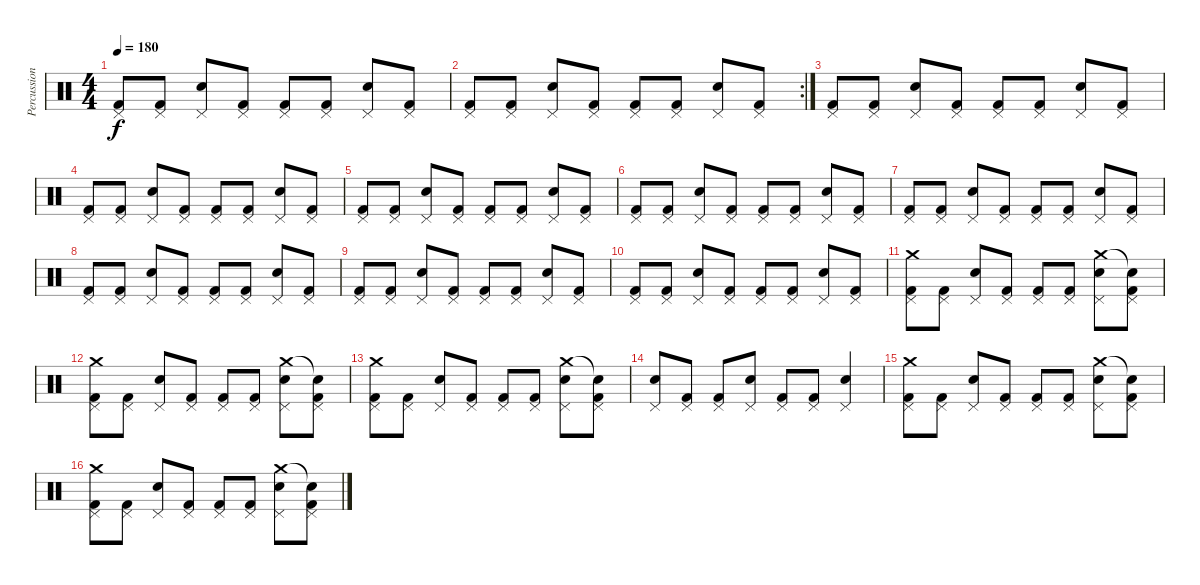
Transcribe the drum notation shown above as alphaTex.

\track ("Percussion" "Percussion") {instrument percussion}
\staff {score}
\articulation defaults
\ts (4 4)
\tempo 180
\clef neutral
\ks c
("Pedal Hi-Hat (hit)" "Kick (hit) 2").8{dy f} ("Pedal Hi-Hat (hit)" "Kick (hit) 2").8 ("Pedal Hi-Hat (hit)" "Snare (hit) 2").8 ("Pedal Hi-Hat (hit)" "Kick (hit) 2").8 ("Pedal Hi-Hat (hit)" "Kick (hit) 2").8 ("Pedal Hi-Hat (hit)" "Kick (hit) 2").8 ("Pedal Hi-Hat (hit)" "Snare (hit) 2").8 ("Pedal Hi-Hat (hit)" "Kick (hit) 2").8 |
\rc 2
("Pedal Hi-Hat (hit)" "Kick (hit) 2").8 ("Pedal Hi-Hat (hit)" "Kick (hit) 2").8 ("Pedal Hi-Hat (hit)" "Snare (hit) 2").8 ("Pedal Hi-Hat (hit)" "Kick (hit) 2").8 ("Pedal Hi-Hat (hit)" "Kick (hit) 2").8 ("Pedal Hi-Hat (hit)" "Kick (hit) 2").8 ("Pedal Hi-Hat (hit)" "Snare (hit) 2").8 ("Pedal Hi-Hat (hit)" "Kick (hit) 2").8 |
("Pedal Hi-Hat (hit)" "Kick (hit) 2").8 ("Pedal Hi-Hat (hit)" "Kick (hit) 2").8 ("Pedal Hi-Hat (hit)" "Snare (hit) 2").8 ("Pedal Hi-Hat (hit)" "Kick (hit) 2").8 ("Pedal Hi-Hat (hit)" "Kick (hit) 2").8 ("Pedal Hi-Hat (hit)" "Kick (hit) 2").8 ("Pedal Hi-Hat (hit)" "Snare (hit) 2").8 ("Pedal Hi-Hat (hit)" "Kick (hit) 2").8 |
("Pedal Hi-Hat (hit)" "Kick (hit) 2").8 ("Pedal Hi-Hat (hit)" "Kick (hit) 2").8 ("Pedal Hi-Hat (hit)" "Snare (hit) 2").8 ("Pedal Hi-Hat (hit)" "Kick (hit) 2").8 ("Pedal Hi-Hat (hit)" "Kick (hit) 2").8 ("Pedal Hi-Hat (hit)" "Kick (hit) 2").8 ("Pedal Hi-Hat (hit)" "Snare (hit) 2").8 ("Pedal Hi-Hat (hit)" "Kick (hit) 2").8 |
("Pedal Hi-Hat (hit)" "Kick (hit) 2").8 ("Pedal Hi-Hat (hit)" "Kick (hit) 2").8 ("Pedal Hi-Hat (hit)" "Snare (hit) 2").8 ("Pedal Hi-Hat (hit)" "Kick (hit) 2").8 ("Pedal Hi-Hat (hit)" "Kick (hit) 2").8 ("Pedal Hi-Hat (hit)" "Kick (hit) 2").8 ("Pedal Hi-Hat (hit)" "Snare (hit) 2").8 ("Pedal Hi-Hat (hit)" "Kick (hit) 2").8 |
("Pedal Hi-Hat (hit)" "Kick (hit) 2").8 ("Pedal Hi-Hat (hit)" "Kick (hit) 2").8 ("Pedal Hi-Hat (hit)" "Snare (hit) 2").8 ("Pedal Hi-Hat (hit)" "Kick (hit) 2").8 ("Pedal Hi-Hat (hit)" "Kick (hit) 2").8 ("Pedal Hi-Hat (hit)" "Kick (hit) 2").8 ("Pedal Hi-Hat (hit)" "Snare (hit) 2").8 ("Pedal Hi-Hat (hit)" "Kick (hit) 2").8 |
("Pedal Hi-Hat (hit)" "Kick (hit) 2").8 ("Pedal Hi-Hat (hit)" "Kick (hit) 2").8 ("Pedal Hi-Hat (hit)" "Snare (hit) 2").8 ("Pedal Hi-Hat (hit)" "Kick (hit) 2").8 ("Pedal Hi-Hat (hit)" "Kick (hit) 2").8 ("Pedal Hi-Hat (hit)" "Kick (hit) 2").8 ("Pedal Hi-Hat (hit)" "Snare (hit) 2").8 ("Pedal Hi-Hat (hit)" "Kick (hit) 2").8 |
("Pedal Hi-Hat (hit)" "Kick (hit) 2").8 ("Pedal Hi-Hat (hit)" "Kick (hit) 2").8 ("Pedal Hi-Hat (hit)" "Snare (hit) 2").8 ("Pedal Hi-Hat (hit)" "Kick (hit) 2").8 ("Pedal Hi-Hat (hit)" "Kick (hit) 2").8 ("Pedal Hi-Hat (hit)" "Kick (hit) 2").8 ("Pedal Hi-Hat (hit)" "Snare (hit) 2").8 ("Pedal Hi-Hat (hit)" "Kick (hit) 2").8 |
("Pedal Hi-Hat (hit)" "Kick (hit) 2").8 ("Pedal Hi-Hat (hit)" "Kick (hit) 2").8 ("Pedal Hi-Hat (hit)" "Snare (hit) 2").8 ("Pedal Hi-Hat (hit)" "Kick (hit) 2").8 ("Pedal Hi-Hat (hit)" "Kick (hit) 2").8 ("Pedal Hi-Hat (hit)" "Kick (hit) 2").8 ("Pedal Hi-Hat (hit)" "Snare (hit) 2").8 ("Pedal Hi-Hat (hit)" "Kick (hit) 2").8 |
("Pedal Hi-Hat (hit)" "Kick (hit) 2").8 ("Pedal Hi-Hat (hit)" "Kick (hit) 2").8 ("Pedal Hi-Hat (hit)" "Snare (hit) 2").8 ("Pedal Hi-Hat (hit)" "Kick (hit) 2").8 ("Pedal Hi-Hat (hit)" "Kick (hit) 2").8 ("Pedal Hi-Hat (hit)" "Kick (hit) 2").8 ("Pedal Hi-Hat (hit)" "Snare (hit) 2").8 ("Pedal Hi-Hat (hit)" "Kick (hit) 2").8 |
("Pedal Hi-Hat (hit)" "Crash medium (hit)" "Kick (hit) 2").8 ("Pedal Hi-Hat (hit)" "Kick (hit) 2").8 ("Pedal Hi-Hat (hit)" "Snare (hit) 2").8 ("Pedal Hi-Hat (hit)" "Kick (hit) 2").8 ("Pedal Hi-Hat (hit)" "Kick (hit) 2").8 ("Pedal Hi-Hat (hit)" "Kick (hit) 2").8 ("Pedal Hi-Hat (hit)" "Crash medium (hit)" "Snare (hit) 2").8 ("Pedal Hi-Hat (hit)" "Snare (hit)"{t} "Kick (hit) 2").8 |
("Pedal Hi-Hat (hit)" "Crash medium (hit)" "Kick (hit) 2").8 ("Pedal Hi-Hat (hit)" "Kick (hit) 2").8 ("Pedal Hi-Hat (hit)" "Snare (hit) 2").8 ("Pedal Hi-Hat (hit)" "Kick (hit) 2").8 ("Pedal Hi-Hat (hit)" "Kick (hit) 2").8 ("Pedal Hi-Hat (hit)" "Kick (hit) 2").8 ("Pedal Hi-Hat (hit)" "Crash medium (hit)" "Snare (hit) 2").8 ("Pedal Hi-Hat (hit)" "Snare (hit)"{t} "Kick (hit) 2").8 |
("Pedal Hi-Hat (hit)" "Crash medium (hit)" "Kick (hit) 2").8 ("Pedal Hi-Hat (hit)" "Kick (hit) 2").8 ("Pedal Hi-Hat (hit)" "Snare (hit) 2").8 ("Pedal Hi-Hat (hit)" "Kick (hit) 2").8 ("Pedal Hi-Hat (hit)" "Kick (hit) 2").8 ("Pedal Hi-Hat (hit)" "Kick (hit) 2").8 ("Pedal Hi-Hat (hit)" "Crash medium (hit)" "Snare (hit) 2").8 ("Pedal Hi-Hat (hit)" "Snare (hit)"{t} "Kick (hit) 2").8 |
("Pedal Hi-Hat (hit)" "Snare (hit) 2").8 ("Pedal Hi-Hat (hit)" "Kick (hit) 2").8 ("Pedal Hi-Hat (hit)" "Kick (hit) 2").8 ("Pedal Hi-Hat (hit)" "Snare (hit) 2").8 ("Pedal Hi-Hat (hit)" "Kick (hit) 2").8 ("Pedal Hi-Hat (hit)" "Kick (hit) 2").8 ("Pedal Hi-Hat (hit)" "Snare (hit) 2").4 |
("Pedal Hi-Hat (hit)" "Crash medium (hit)" "Kick (hit) 2").8 ("Pedal Hi-Hat (hit)" "Kick (hit) 2").8 ("Pedal Hi-Hat (hit)" "Snare (hit) 2").8 ("Pedal Hi-Hat (hit)" "Kick (hit) 2").8 ("Pedal Hi-Hat (hit)" "Kick (hit) 2").8 ("Pedal Hi-Hat (hit)" "Kick (hit) 2").8 ("Pedal Hi-Hat (hit)" "Crash medium (hit)" "Snare (hit) 2").8 ("Pedal Hi-Hat (hit)" "Snare (hit)"{t} "Kick (hit) 2").8 |
("Pedal Hi-Hat (hit)" "Crash medium (hit)" "Kick (hit) 2").8 ("Pedal Hi-Hat (hit)" "Kick (hit) 2").8 ("Pedal Hi-Hat (hit)" "Snare (hit) 2").8 ("Pedal Hi-Hat (hit)" "Kick (hit) 2").8 ("Pedal Hi-Hat (hit)" "Kick (hit) 2").8 ("Pedal Hi-Hat (hit)" "Kick (hit) 2").8 ("Pedal Hi-Hat (hit)" "Crash medium (hit)" "Snare (hit) 2").8 ("Pedal Hi-Hat (hit)" "Snare (hit)"{t} "Kick (hit) 2").8
